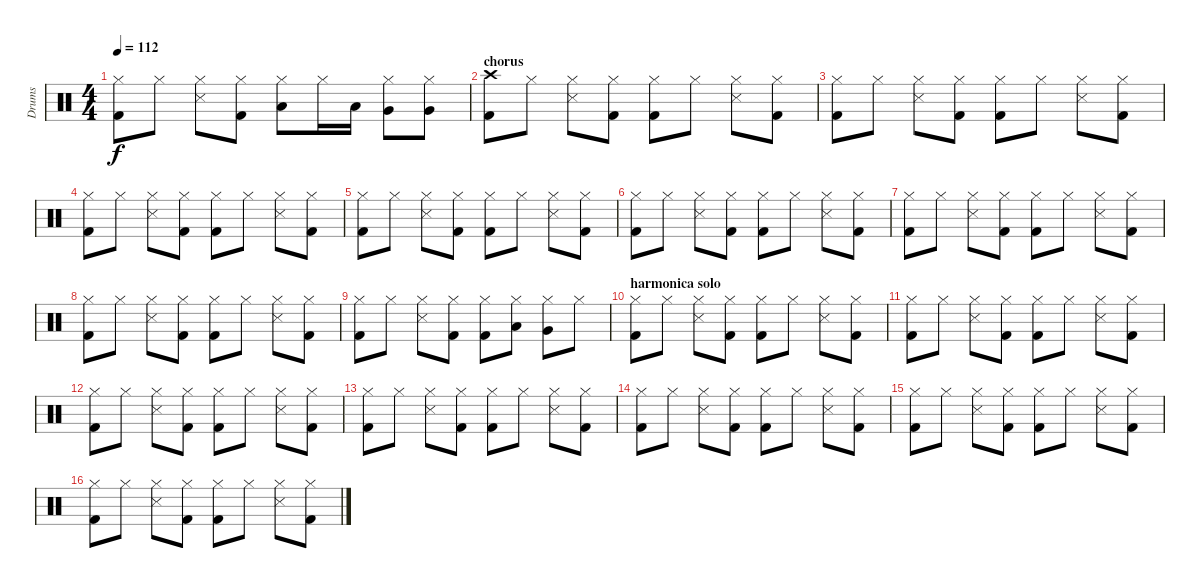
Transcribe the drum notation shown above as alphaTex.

\track ("Drums" "Drums") {instrument percussion}
\staff {score}
\articulation defaults
\ts (4 4)
\tempo 112
\clef neutral
\ks c
("Hi-Hat (closed)" "Kick (hit) 2").8{dy f} "Hi-Hat (closed)".8 ("Hi-Hat (closed)" "Snare (side stick) 3").8 ("Hi-Hat (closed)" "Kick (hit) 2").8 ("Hi-Hat (closed)" "Low Tom (hit)").8 "Hi-Hat (closed)".16 "Low Tom (hit)".16 ("Hi-Hat (closed)" "Very Low Tom (hit)").8 ("Hi-Hat (closed)" "Very Low Tom (hit)").8 |
\section ("" "chorus")
("Crash high (hit)" "Kick (hit) 2").8 "Hi-Hat (closed)".8 ("Hi-Hat (closed)" "Snare (side stick) 3").8 ("Hi-Hat (closed)" "Kick (hit) 2").8 ("Hi-Hat (closed)" "Kick (hit) 2").8 "Hi-Hat (closed)".8 ("Hi-Hat (closed)" "Snare (side stick) 3").8 ("Hi-Hat (closed)" "Kick (hit) 2").8 |
("Hi-Hat (closed)" "Kick (hit) 2").8 "Hi-Hat (closed)".8 ("Hi-Hat (closed)" "Snare (side stick) 3").8 ("Hi-Hat (closed)" "Kick (hit) 2").8 ("Hi-Hat (closed)" "Kick (hit) 2").8 "Hi-Hat (closed)".8 ("Hi-Hat (closed)" "Snare (side stick) 3").8 ("Hi-Hat (closed)" "Kick (hit) 2").8 |
("Hi-Hat (closed)" "Kick (hit) 2").8 "Hi-Hat (closed)".8 ("Hi-Hat (closed)" "Snare (side stick) 3").8 ("Hi-Hat (closed)" "Kick (hit) 2").8 ("Hi-Hat (closed)" "Kick (hit) 2").8 "Hi-Hat (closed)".8 ("Hi-Hat (closed)" "Snare (side stick) 3").8 ("Hi-Hat (closed)" "Kick (hit) 2").8 |
("Hi-Hat (closed)" "Kick (hit) 2").8 "Hi-Hat (closed)".8 ("Hi-Hat (closed)" "Snare (side stick) 3").8 ("Hi-Hat (closed)" "Kick (hit) 2").8 ("Hi-Hat (closed)" "Kick (hit) 2").8 "Hi-Hat (closed)".8 ("Hi-Hat (closed)" "Snare (side stick) 3").8 ("Hi-Hat (closed)" "Kick (hit) 2").8 |
("Hi-Hat (closed)" "Kick (hit) 2").8 "Hi-Hat (closed)".8 ("Hi-Hat (closed)" "Snare (side stick) 3").8 ("Hi-Hat (closed)" "Kick (hit) 2").8 ("Hi-Hat (closed)" "Kick (hit) 2").8 "Hi-Hat (closed)".8 ("Hi-Hat (closed)" "Snare (side stick) 3").8 ("Hi-Hat (closed)" "Kick (hit) 2").8 |
("Hi-Hat (closed)" "Kick (hit) 2").8 "Hi-Hat (closed)".8 ("Hi-Hat (closed)" "Snare (side stick) 3").8 ("Hi-Hat (closed)" "Kick (hit) 2").8 ("Hi-Hat (closed)" "Kick (hit) 2").8 "Hi-Hat (closed)".8 ("Hi-Hat (closed)" "Snare (side stick) 3").8 ("Hi-Hat (closed)" "Kick (hit) 2").8 |
("Hi-Hat (closed)" "Kick (hit) 2").8 "Hi-Hat (closed)".8 ("Hi-Hat (closed)" "Snare (side stick) 3").8 ("Hi-Hat (closed)" "Kick (hit) 2").8 ("Hi-Hat (closed)" "Kick (hit) 2").8 "Hi-Hat (closed)".8 ("Hi-Hat (closed)" "Snare (side stick) 3").8 ("Hi-Hat (closed)" "Kick (hit) 2").8 |
("Hi-Hat (closed)" "Kick (hit) 2").8 "Hi-Hat (closed)".8 ("Hi-Hat (closed)" "Snare (side stick) 3").8 ("Hi-Hat (closed)" "Kick (hit) 2").8 ("Hi-Hat (closed)" "Kick (hit) 2").8 ("Hi-Hat (closed)" "Low Tom (hit)").8 ("Hi-Hat (closed)" "Very Low Tom (hit)").8 "Hi-Hat (closed)".8 |
\section ("" "harmonica solo")
("Hi-Hat (closed)" "Kick (hit) 2").8 "Hi-Hat (closed)".8 ("Hi-Hat (closed)" "Snare (side stick) 3").8 ("Hi-Hat (closed)" "Kick (hit) 2").8 ("Hi-Hat (closed)" "Kick (hit) 2").8 "Hi-Hat (closed)".8 ("Hi-Hat (closed)" "Snare (side stick) 3").8 ("Hi-Hat (closed)" "Kick (hit) 2").8 |
("Hi-Hat (closed)" "Kick (hit) 2").8 "Hi-Hat (closed)".8 ("Hi-Hat (closed)" "Snare (side stick) 3").8 ("Hi-Hat (closed)" "Kick (hit) 2").8 ("Hi-Hat (closed)" "Kick (hit) 2").8 "Hi-Hat (closed)".8 ("Hi-Hat (closed)" "Snare (side stick) 3").8 ("Hi-Hat (closed)" "Kick (hit) 2").8 |
("Hi-Hat (closed)" "Kick (hit) 2").8 "Hi-Hat (closed)".8 ("Hi-Hat (closed)" "Snare (side stick) 3").8 ("Hi-Hat (closed)" "Kick (hit) 2").8 ("Hi-Hat (closed)" "Kick (hit) 2").8 "Hi-Hat (closed)".8 ("Hi-Hat (closed)" "Snare (side stick) 3").8 ("Hi-Hat (closed)" "Kick (hit) 2").8 |
("Hi-Hat (closed)" "Kick (hit) 2").8 "Hi-Hat (closed)".8 ("Hi-Hat (closed)" "Snare (side stick) 3").8 ("Hi-Hat (closed)" "Kick (hit) 2").8 ("Hi-Hat (closed)" "Kick (hit) 2").8 "Hi-Hat (closed)".8 ("Hi-Hat (closed)" "Snare (side stick) 3").8 ("Hi-Hat (closed)" "Kick (hit) 2").8 |
("Hi-Hat (closed)" "Kick (hit) 2").8 "Hi-Hat (closed)".8 ("Hi-Hat (closed)" "Snare (side stick) 3").8 ("Hi-Hat (closed)" "Kick (hit) 2").8 ("Hi-Hat (closed)" "Kick (hit) 2").8 "Hi-Hat (closed)".8 ("Hi-Hat (closed)" "Snare (side stick) 3").8 ("Hi-Hat (closed)" "Kick (hit) 2").8 |
("Hi-Hat (closed)" "Kick (hit) 2").8 "Hi-Hat (closed)".8 ("Hi-Hat (closed)" "Snare (side stick) 3").8 ("Hi-Hat (closed)" "Kick (hit) 2").8 ("Hi-Hat (closed)" "Kick (hit) 2").8 "Hi-Hat (closed)".8 ("Hi-Hat (closed)" "Snare (side stick) 3").8 ("Hi-Hat (closed)" "Kick (hit) 2").8 |
("Hi-Hat (closed)" "Kick (hit) 2").8 "Hi-Hat (closed)".8 ("Hi-Hat (closed)" "Snare (side stick) 3").8 ("Hi-Hat (closed)" "Kick (hit) 2").8 ("Hi-Hat (closed)" "Kick (hit) 2").8 "Hi-Hat (closed)".8 ("Hi-Hat (closed)" "Snare (side stick) 3").8 ("Hi-Hat (closed)" "Kick (hit) 2").8
